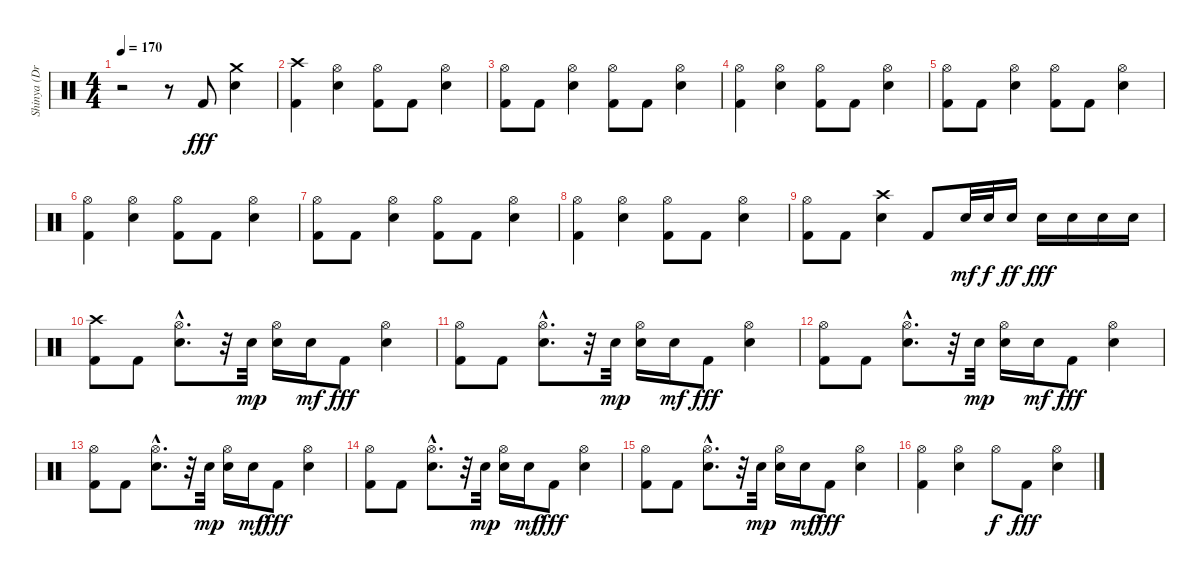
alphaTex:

\track ("Shinya (Drums)" "Shinya (Dr") {instrument percussion}
\staff {score}
\articulation defaults
\ts (4 4)
\tempo 170
\clef neutral
\ks c
r.2{dy fff} r.8 "Kick (hit) 2".8 ("Crash medium (hit)" "Electric Snare (hit)").4 |
("Crash high (hit)" "Kick (hit) 2").4 ("Hi-Hat (open)" "Electric Snare (hit)").4 ("Hi-Hat (open)" "Kick (hit) 2").8 "Kick (hit) 2".8 ("Hi-Hat (open)" "Electric Snare (hit)").4 |
("Hi-Hat (open)" "Kick (hit) 2").8 "Kick (hit) 2".8 ("Hi-Hat (open)" "Electric Snare (hit)").4 ("Hi-Hat (open)" "Kick (hit) 2").8 "Kick (hit) 2".8 ("Hi-Hat (open)" "Electric Snare (hit)").4 |
("Hi-Hat (open)" "Kick (hit) 2").4 ("Hi-Hat (open)" "Electric Snare (hit)").4 ("Hi-Hat (open)" "Kick (hit) 2").8 "Kick (hit) 2".8 ("Hi-Hat (open)" "Electric Snare (hit)").4 |
("Hi-Hat (open)" "Kick (hit) 2").8 "Kick (hit) 2".8 ("Hi-Hat (open)" "Electric Snare (hit)").4 ("Hi-Hat (open)" "Kick (hit) 2").8 "Kick (hit) 2".8 ("Hi-Hat (open)" "Electric Snare (hit)").4 |
("Hi-Hat (open)" "Kick (hit) 2").4 ("Hi-Hat (open)" "Electric Snare (hit)").4 ("Hi-Hat (open)" "Kick (hit) 2").8 "Kick (hit) 2".8 ("Hi-Hat (open)" "Electric Snare (hit)").4 |
("Hi-Hat (open)" "Kick (hit) 2").8 "Kick (hit) 2".8 ("Hi-Hat (open)" "Electric Snare (hit)").4 ("Hi-Hat (open)" "Kick (hit) 2").8 "Kick (hit) 2".8 ("Hi-Hat (open)" "Electric Snare (hit)").4 |
("Hi-Hat (open)" "Kick (hit) 2").4 ("Hi-Hat (open)" "Electric Snare (hit)").4 ("Hi-Hat (open)" "Kick (hit) 2").8 "Kick (hit) 2".8 ("Hi-Hat (open)" "Electric Snare (hit)").4 |
("Hi-Hat (open)" "Kick (hit) 2").8 "Kick (hit) 2".8 ("Crash high (hit)" "Electric Snare (hit)").4 "Kick (hit) 2".8 "Electric Snare (hit)".32{dy mf} "Electric Snare (hit)".32{dy f} "Electric Snare (hit)".16{dy ff} "Electric Snare (hit)".16{dy fff} "Electric Snare (hit)".16 "Electric Snare (hit)".16 "Electric Snare (hit)".16 |
("Crash high (hit)" "Kick (hit) 2").8 "Kick (hit) 2".8 ("Hi-Hat (open)"{hac} "Electric Snare (hit)"{hac}).8{d} r.32 "Electric Snare (hit)".32{dy mp} ("Hi-Hat (open)" "Electric Snare (hit)").16 "Electric Snare (hit)".16{dy mf} "Kick (hit) 2".8{dy fff} ("Hi-Hat (open)" "Electric Snare (hit)").4 |
("Hi-Hat (open)" "Kick (hit) 2").8 "Kick (hit) 2".8 ("Hi-Hat (open)"{hac} "Electric Snare (hit)"{hac}).8{d} r.32 "Electric Snare (hit)".32{dy mp} ("Hi-Hat (open)" "Electric Snare (hit)").16 "Electric Snare (hit)".16{dy mf} "Kick (hit) 2".8{dy fff} ("Hi-Hat (open)" "Electric Snare (hit)").4 |
("Hi-Hat (open)" "Kick (hit) 2").8 "Kick (hit) 2".8 ("Hi-Hat (open)"{hac} "Electric Snare (hit)"{hac}).8{d} r.32 "Electric Snare (hit)".32{dy mp} ("Hi-Hat (open)" "Electric Snare (hit)").16 "Electric Snare (hit)".16{dy mf} "Kick (hit) 2".8{dy fff} ("Hi-Hat (open)" "Electric Snare (hit)").4 |
("Hi-Hat (open)" "Kick (hit) 2").8 "Kick (hit) 2".8 ("Hi-Hat (open)"{hac} "Electric Snare (hit)"{hac}).8{d} r.32 "Electric Snare (hit)".32{dy mp} ("Hi-Hat (open)" "Electric Snare (hit)").16 "Electric Snare (hit)".16{dy mf} "Kick (hit) 2".8{dy fff} ("Hi-Hat (open)" "Electric Snare (hit)").4 |
("Hi-Hat (open)" "Kick (hit) 2").8 "Kick (hit) 2".8 ("Hi-Hat (open)"{hac} "Electric Snare (hit)"{hac}).8{d} r.32 "Electric Snare (hit)".32{dy mp} ("Hi-Hat (open)" "Electric Snare (hit)").16 "Electric Snare (hit)".16{dy mf} "Kick (hit) 2".8{dy fff} ("Hi-Hat (open)" "Electric Snare (hit)").4 |
("Hi-Hat (open)" "Kick (hit) 2").8 "Kick (hit) 2".8 ("Hi-Hat (open)"{hac} "Electric Snare (hit)"{hac}).8{d} r.32 "Electric Snare (hit)".32{dy mp} ("Hi-Hat (open)" "Electric Snare (hit)").16 "Electric Snare (hit)".16{dy mf} "Kick (hit) 2".8{dy fff} ("Hi-Hat (open)" "Electric Snare (hit)").4 |
("Hi-Hat (open)" "Kick (hit) 2").4 ("Hi-Hat (open)" "Electric Snare (hit)").4 "Hi-Hat (open)".8{dy f} "Kick (hit) 2".8{dy fff} ("Hi-Hat (open)" "Electric Snare (hit)").4
